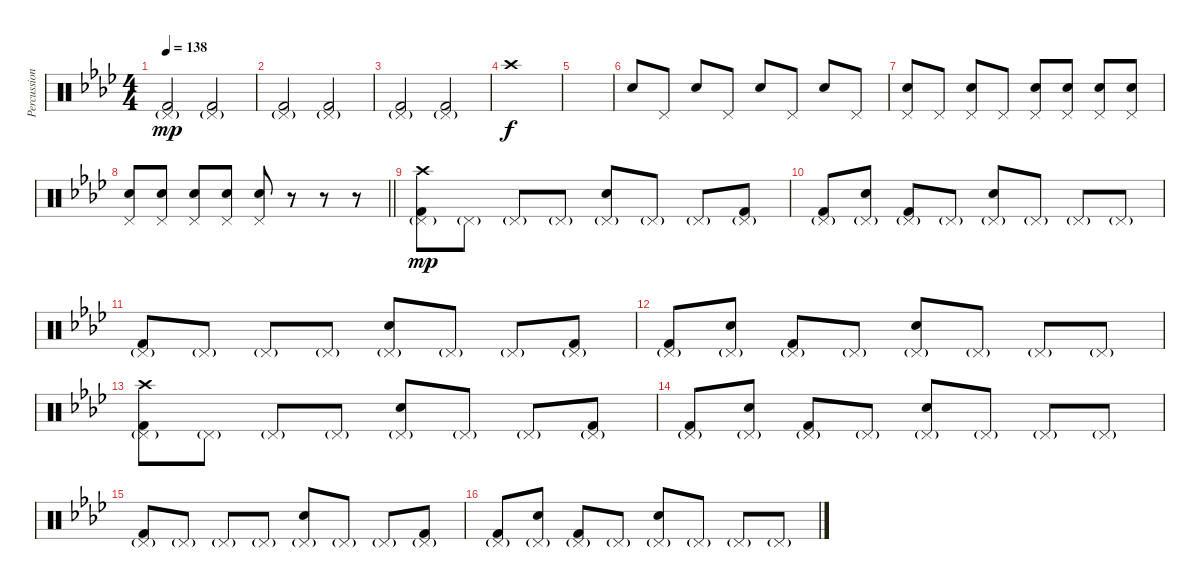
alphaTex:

\track ("Percussion" "Percussion") {instrument percussion}
\staff {score}
\articulation defaults
\ts (4 4)
\tempo 138
\clef neutral
\ks ab
("Pedal Hi-Hat (hit)"{g} "Kick (hit) 2").2{dy mp} ("Pedal Hi-Hat (hit)"{g} "Kick (hit) 2").2 |
("Pedal Hi-Hat (hit)"{g} "Kick (hit) 2").2 ("Pedal Hi-Hat (hit)"{g} "Kick (hit) 2").2 |
("Pedal Hi-Hat (hit)"{g} "Kick (hit) 2").2 ("Pedal Hi-Hat (hit)"{g} "Kick (hit) 2").2 |
"Crash high (hit)".1{dy f} |
|
"Snare (hit) 2".8{volume 16} "Pedal Hi-Hat (hit)".8 "Snare (hit) 2".8 "Pedal Hi-Hat (hit)".8 "Snare (hit) 2".8 "Pedal Hi-Hat (hit)".8 "Snare (hit) 2".8 "Pedal Hi-Hat (hit)".8 |
("Pedal Hi-Hat (hit)" "Snare (hit) 2").8 "Pedal Hi-Hat (hit)".8 ("Pedal Hi-Hat (hit)" "Snare (hit) 2").8 "Pedal Hi-Hat (hit)".8 ("Pedal Hi-Hat (hit)" "Snare (hit) 2").8 ("Pedal Hi-Hat (hit)" "Snare (hit) 2").8 ("Pedal Hi-Hat (hit)" "Snare (hit) 2").8 ("Pedal Hi-Hat (hit)" "Snare (hit) 2").8 |
\barLineRight lightlight
("Pedal Hi-Hat (hit)" "Snare (hit) 2").8 ("Pedal Hi-Hat (hit)" "Snare (hit) 2").8 ("Pedal Hi-Hat (hit)" "Snare (hit) 2").8 ("Pedal Hi-Hat (hit)" "Snare (hit) 2").8 ("Pedal Hi-Hat (hit)" "Snare (hit) 2").8 r.8 r.8 r.8 |
("Crash high (hit)" "Pedal Hi-Hat (hit)"{g} "Kick (hit) 2").8{dy mp} "Pedal Hi-Hat (hit)"{g}.8 "Pedal Hi-Hat (hit)"{g}.8 "Pedal Hi-Hat (hit)"{g}.8 ("Snare (hit) 2" "Pedal Hi-Hat (hit)"{g}).8 "Pedal Hi-Hat (hit)"{g}.8 "Pedal Hi-Hat (hit)"{g}.8 ("Pedal Hi-Hat (hit)"{g} "Kick (hit) 2").8 |
("Pedal Hi-Hat (hit)"{g} "Kick (hit) 2").8 ("Snare (hit) 2" "Pedal Hi-Hat (hit)"{g}).8 ("Pedal Hi-Hat (hit)"{g} "Kick (hit) 2").8 "Pedal Hi-Hat (hit)"{g}.8 ("Snare (hit) 2" "Pedal Hi-Hat (hit)"{g}).8 "Pedal Hi-Hat (hit)"{g}.8 "Pedal Hi-Hat (hit)"{g}.8 "Pedal Hi-Hat (hit)"{g}.8 |
("Pedal Hi-Hat (hit)"{g} "Kick (hit) 2").8 "Pedal Hi-Hat (hit)"{g}.8 "Pedal Hi-Hat (hit)"{g}.8 "Pedal Hi-Hat (hit)"{g}.8 ("Snare (hit) 2" "Pedal Hi-Hat (hit)"{g}).8 "Pedal Hi-Hat (hit)"{g}.8 "Pedal Hi-Hat (hit)"{g}.8 ("Pedal Hi-Hat (hit)"{g} "Kick (hit) 2").8 |
("Pedal Hi-Hat (hit)"{g} "Kick (hit) 2").8 ("Snare (hit) 2" "Pedal Hi-Hat (hit)"{g}).8 ("Pedal Hi-Hat (hit)"{g} "Kick (hit) 2").8 "Pedal Hi-Hat (hit)"{g}.8 ("Snare (hit) 2" "Pedal Hi-Hat (hit)"{g}).8 "Pedal Hi-Hat (hit)"{g}.8 "Pedal Hi-Hat (hit)"{g}.8 "Pedal Hi-Hat (hit)"{g}.8 |
("Crash high (hit)" "Pedal Hi-Hat (hit)"{g} "Kick (hit) 2").8 "Pedal Hi-Hat (hit)"{g}.8 "Pedal Hi-Hat (hit)"{g}.8 "Pedal Hi-Hat (hit)"{g}.8 ("Snare (hit) 2" "Pedal Hi-Hat (hit)"{g}).8 "Pedal Hi-Hat (hit)"{g}.8 "Pedal Hi-Hat (hit)"{g}.8 ("Pedal Hi-Hat (hit)"{g} "Kick (hit) 2").8 |
("Pedal Hi-Hat (hit)"{g} "Kick (hit) 2").8 ("Snare (hit) 2" "Pedal Hi-Hat (hit)"{g}).8 ("Pedal Hi-Hat (hit)"{g} "Kick (hit) 2").8 "Pedal Hi-Hat (hit)"{g}.8 ("Snare (hit) 2" "Pedal Hi-Hat (hit)"{g}).8 "Pedal Hi-Hat (hit)"{g}.8 "Pedal Hi-Hat (hit)"{g}.8 "Pedal Hi-Hat (hit)"{g}.8 |
("Pedal Hi-Hat (hit)"{g} "Kick (hit) 2").8 "Pedal Hi-Hat (hit)"{g}.8 "Pedal Hi-Hat (hit)"{g}.8 "Pedal Hi-Hat (hit)"{g}.8 ("Snare (hit) 2" "Pedal Hi-Hat (hit)"{g}).8 "Pedal Hi-Hat (hit)"{g}.8 "Pedal Hi-Hat (hit)"{g}.8 ("Pedal Hi-Hat (hit)"{g} "Kick (hit) 2").8 |
("Pedal Hi-Hat (hit)"{g} "Kick (hit) 2").8 ("Snare (hit) 2" "Pedal Hi-Hat (hit)"{g}).8 ("Pedal Hi-Hat (hit)"{g} "Kick (hit) 2").8 "Pedal Hi-Hat (hit)"{g}.8 ("Snare (hit) 2" "Pedal Hi-Hat (hit)"{g}).8 "Pedal Hi-Hat (hit)"{g}.8 "Pedal Hi-Hat (hit)"{g}.8 "Pedal Hi-Hat (hit)"{g}.8
